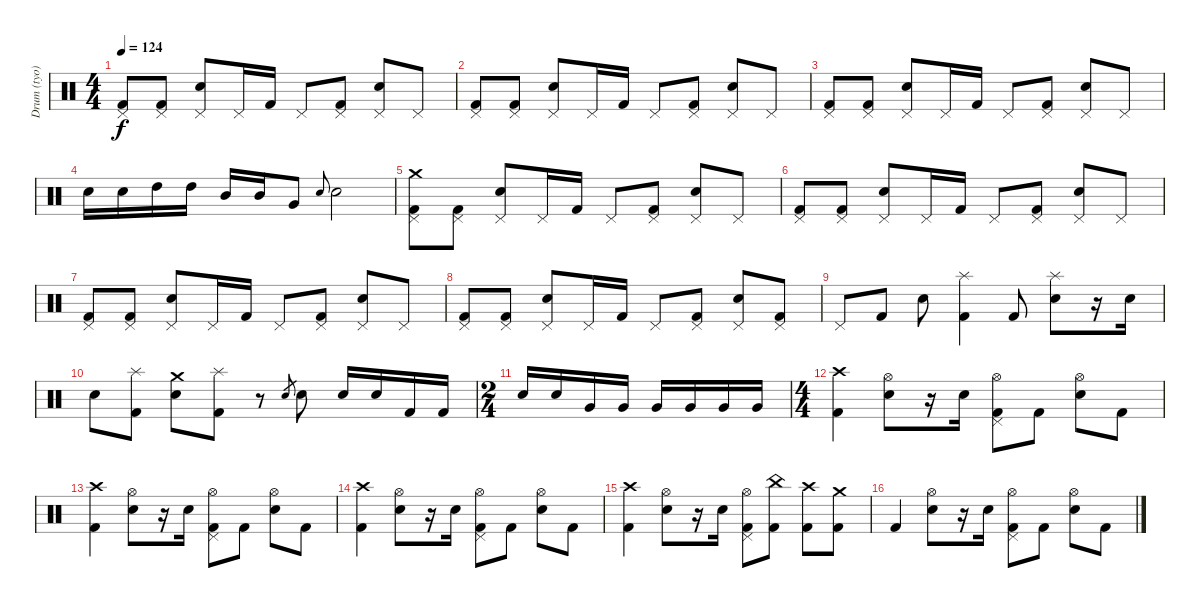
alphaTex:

\track ("Drum (tyo)" "Drum (tyo)") {instrument percussion}
\staff {score}
\articulation defaults
\ts (4 4)
\tempo 124
\clef neutral
\ks c
("Kick (hit) 2" "Pedal Hi-Hat (hit)").8{dy f} ("Kick (hit) 2" "Pedal Hi-Hat (hit)").8 ("Electric Snare (hit)" "Pedal Hi-Hat (hit)").8 "Pedal Hi-Hat (hit)".16 "Kick (hit) 2".16 "Pedal Hi-Hat (hit)".8 ("Kick (hit) 2" "Pedal Hi-Hat (hit)").8 ("Electric Snare (hit)" "Pedal Hi-Hat (hit)").8 "Pedal Hi-Hat (hit)".8 |
("Kick (hit) 2" "Pedal Hi-Hat (hit)").8 ("Kick (hit) 2" "Pedal Hi-Hat (hit)").8 ("Electric Snare (hit)" "Pedal Hi-Hat (hit)").8 "Pedal Hi-Hat (hit)".16 "Kick (hit) 2".16 "Pedal Hi-Hat (hit)".8 ("Kick (hit) 2" "Pedal Hi-Hat (hit)").8 ("Electric Snare (hit)" "Pedal Hi-Hat (hit)").8 "Pedal Hi-Hat (hit)".8 |
("Kick (hit) 2" "Pedal Hi-Hat (hit)").8 ("Kick (hit) 2" "Pedal Hi-Hat (hit)").8 ("Electric Snare (hit)" "Pedal Hi-Hat (hit)").8 "Pedal Hi-Hat (hit)".16 "Kick (hit) 2".16 "Pedal Hi-Hat (hit)".8 ("Kick (hit) 2" "Pedal Hi-Hat (hit)").8 ("Electric Snare (hit)" "Pedal Hi-Hat (hit)").8 "Pedal Hi-Hat (hit)".8 |
"Electric Snare (hit)".16 "Electric Snare (hit)".16 "High Tom (hit)".16 "High Tom (hit)".16 "Mid Tom (hit)".16 "Mid Tom (hit)".16 "Very Low Tom (hit)".8 "Snare (hit) 2".8{gr onbeat} "Snare (hit) 2".2 |
("Kick (hit) 2" "Pedal Hi-Hat (hit)" "Crash medium (hit)").8 ("Kick (hit) 2" "Pedal Hi-Hat (hit)").8 ("Electric Snare (hit)" "Pedal Hi-Hat (hit)").8 "Pedal Hi-Hat (hit)".16 "Kick (hit) 2".16 "Pedal Hi-Hat (hit)".8 ("Kick (hit) 2" "Pedal Hi-Hat (hit)").8 ("Electric Snare (hit)" "Pedal Hi-Hat (hit)").8 "Pedal Hi-Hat (hit)".8 |
("Kick (hit) 2" "Pedal Hi-Hat (hit)").8 ("Kick (hit) 2" "Pedal Hi-Hat (hit)").8 ("Electric Snare (hit)" "Pedal Hi-Hat (hit)").8 "Pedal Hi-Hat (hit)".16 "Kick (hit) 2".16 "Pedal Hi-Hat (hit)".8 ("Kick (hit) 2" "Pedal Hi-Hat (hit)").8 ("Electric Snare (hit)" "Pedal Hi-Hat (hit)").8 "Pedal Hi-Hat (hit)".8 |
("Kick (hit) 2" "Pedal Hi-Hat (hit)").8 ("Kick (hit) 2" "Pedal Hi-Hat (hit)").8 ("Electric Snare (hit)" "Pedal Hi-Hat (hit)").8 "Pedal Hi-Hat (hit)".16 "Kick (hit) 2".16 "Pedal Hi-Hat (hit)".8 ("Kick (hit) 2" "Pedal Hi-Hat (hit)").8 ("Electric Snare (hit)" "Pedal Hi-Hat (hit)").8 "Pedal Hi-Hat (hit)".8 |
("Kick (hit) 2" "Pedal Hi-Hat (hit)").8 ("Kick (hit) 2" "Pedal Hi-Hat (hit)").8 ("Electric Snare (hit)" "Pedal Hi-Hat (hit)").8 "Pedal Hi-Hat (hit)".16 "Kick (hit) 2".16 "Pedal Hi-Hat (hit)".8 ("Kick (hit) 2" "Pedal Hi-Hat (hit)").8 ("Electric Snare (hit)" "Pedal Hi-Hat (hit)").8 ("Pedal Hi-Hat (hit)" "Kick (hit) 2").8 |
"Pedal Hi-Hat (hit)".8 "Kick (hit) 2".8 "Electric Snare (hit)".8 ("Kick (hit) 2" "Splash (hit)").4 "Kick (hit) 2".8 ("Electric Snare (hit)" "Splash (hit)").8 r.16 "Electric Snare (hit)".16 |
"Electric Snare (hit)".8 ("Kick (hit) 2" "Splash (hit)").8 ("Electric Snare (hit)" "Crash medium (hit)").8 ("Kick (hit) 2" "Splash (hit)").8 r.8 "Electric Snare (hit)".8{gr} "Electric Snare (hit)".8 "Electric Snare (hit)".16 "Electric Snare (hit)".16 "Kick (hit) 2".16 "Kick (hit) 2".16 |
\ts (2 4)
"Electric Snare (hit)".16 "Electric Snare (hit)".16 "Very Low Tom (hit)".16 "Very Low Tom (hit)".16 "Very Low Tom (hit)".16 "Very Low Tom (hit)".16 "Very Low Tom (hit)".16 "Very Low Tom (hit)".16 |
\ts (4 4)
("Kick (hit) 2" "Crash high (hit)").4 ("Electric Snare (hit)" "Hi-Hat (open)").8 r.16 "Electric Snare (hit)".16 ("Kick (hit) 2" "Pedal Hi-Hat (hit)" "Hi-Hat (open)").8 "Kick (hit) 2".8 ("Electric Snare (hit)" "Hi-Hat (open)").8 "Kick (hit) 2".8 |
("Kick (hit) 2" "Crash high (hit)").4 ("Electric Snare (hit)" "Hi-Hat (open)").8 r.16 "Electric Snare (hit)".16 ("Kick (hit) 2" "Pedal Hi-Hat (hit)" "Hi-Hat (open)").8 "Kick (hit) 2".8 ("Electric Snare (hit)" "Hi-Hat (open)").8 "Kick (hit) 2".8 |
("Kick (hit) 2" "Crash high (hit)").4 ("Electric Snare (hit)" "Hi-Hat (open)").8 r.16 "Electric Snare (hit)".16 ("Kick (hit) 2" "Pedal Hi-Hat (hit)" "Hi-Hat (open)").8 "Kick (hit) 2".8 ("Electric Snare (hit)" "Hi-Hat (open)").8 "Kick (hit) 2".8 |
("Kick (hit) 2" "Crash high (hit)").4 ("Electric Snare (hit)" "Hi-Hat (open)").8 r.16 "Electric Snare (hit)".16 ("Kick (hit) 2" "Pedal Hi-Hat (hit)" "Hi-Hat (open)").8 ("Kick (hit) 2" "China (hit)").8 ("Kick (hit) 2" "Crash high (hit)").8 ("Kick (hit) 2" "Crash medium (hit)").8 |
"Kick (hit) 2".4 ("Electric Snare (hit)" "Hi-Hat (open)").8 r.16 "Electric Snare (hit)".16 ("Kick (hit) 2" "Pedal Hi-Hat (hit)" "Hi-Hat (open)").8 "Kick (hit) 2".8 ("Electric Snare (hit)" "Hi-Hat (open)").8 "Kick (hit) 2".8
